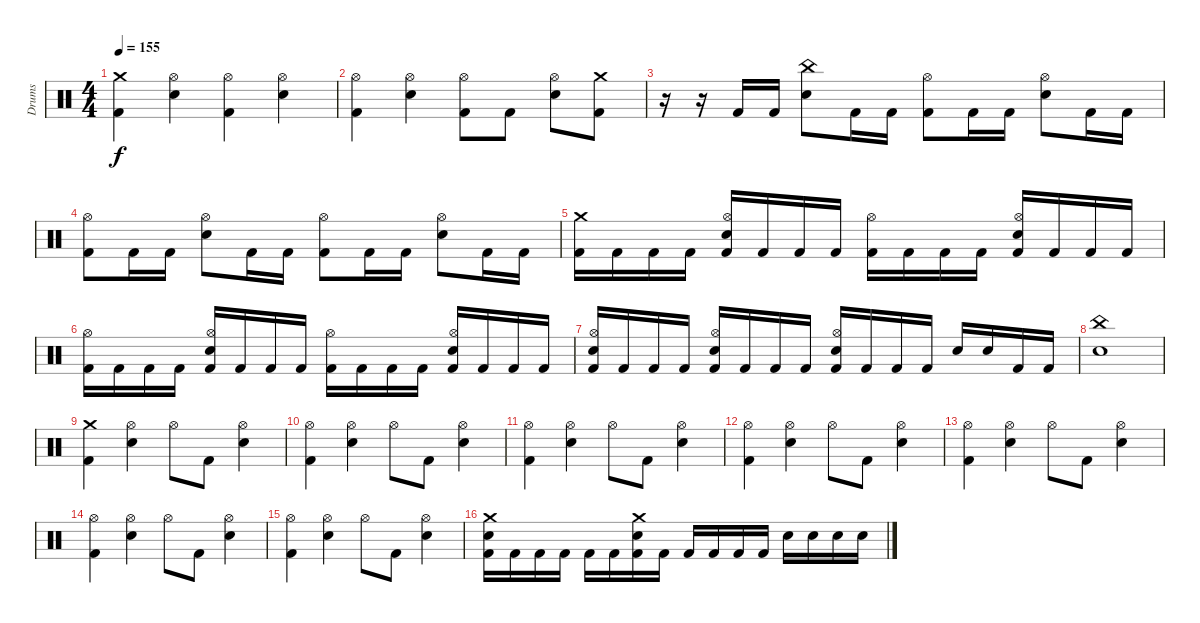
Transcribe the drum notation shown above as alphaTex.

\track ("Drums" "Drums") {instrument percussion}
\staff {score}
\articulation defaults
\ts (4 4)
\tempo 155
\clef neutral
\ks c
("Crash medium (hit)" "Kick (hit) 2").4{dy f} ("Hi-Hat (open)" "Snare (hit) 2").4 ("Hi-Hat (open)" "Kick (hit) 2").4 ("Hi-Hat (open)" "Snare (hit) 2").4 |
("Hi-Hat (open)" "Kick (hit) 2").4 ("Hi-Hat (open)" "Snare (hit) 2").4 ("Hi-Hat (open)" "Kick (hit) 2").8 "Kick (hit) 2".8 ("Hi-Hat (open)" "Snare (hit) 2").8 ("Crash medium (hit)" "Kick (hit) 2").8 |
r.16 r.16 "Kick (hit) 2".16 "Kick (hit) 2".16 ("China (hit)" "Snare (hit) 2").8 "Kick (hit) 2".16 "Kick (hit) 2".16 ("Hi-Hat (open)" "Kick (hit) 2").8 "Kick (hit) 2".16 "Kick (hit) 2".16 ("Hi-Hat (open)" "Snare (hit) 2").8 "Kick (hit) 2".16 "Kick (hit) 2".16 |
("Hi-Hat (open)" "Kick (hit) 2").8 "Kick (hit) 2".16 "Kick (hit) 2".16 ("Hi-Hat (open)" "Snare (hit) 2").8 "Kick (hit) 2".16 "Kick (hit) 2".16 ("Hi-Hat (open)" "Kick (hit) 2").8 "Kick (hit) 2".16 "Kick (hit) 2".16 ("Hi-Hat (open)" "Snare (hit) 2").8 "Kick (hit) 2".16 "Kick (hit) 2".16 |
("Crash medium (hit)" "Kick (hit) 2").16 "Kick (hit) 2".16 "Kick (hit) 2".16 "Kick (hit) 2".16 ("Hi-Hat (open)" "Snare (hit) 2" "Kick (hit) 2").16 "Kick (hit) 2".16 "Kick (hit) 2".16 "Kick (hit) 2".16 ("Hi-Hat (open)" "Kick (hit) 2").16 "Kick (hit) 2".16 "Kick (hit) 2".16 "Kick (hit) 2".16 ("Hi-Hat (open)" "Snare (hit) 2" "Kick (hit) 2").16 "Kick (hit) 2".16 "Kick (hit) 2".16 "Kick (hit) 2".16 |
("Hi-Hat (open)" "Kick (hit) 2").16 "Kick (hit) 2".16 "Kick (hit) 2".16 "Kick (hit) 2".16 ("Hi-Hat (open)" "Snare (hit) 2" "Kick (hit) 2").16 "Kick (hit) 2".16 "Kick (hit) 2".16 "Kick (hit) 2".16 ("Hi-Hat (open)" "Kick (hit) 2").16 "Kick (hit) 2".16 "Kick (hit) 2".16 "Kick (hit) 2".16 ("Hi-Hat (open)" "Snare (hit) 2" "Kick (hit) 2").16 "Kick (hit) 2".16 "Kick (hit) 2".16 "Kick (hit) 2".16 |
("Hi-Hat (open)" "Snare (hit) 2" "Kick (hit) 2").16 "Kick (hit) 2".16 "Kick (hit) 2".16 "Kick (hit) 2".16 ("Hi-Hat (open)" "Snare (hit) 2" "Kick (hit) 2").16 "Kick (hit) 2".16 "Kick (hit) 2".16 "Kick (hit) 2".16 ("Hi-Hat (open)" "Snare (hit) 2" "Kick (hit) 2").16 "Kick (hit) 2".16 "Kick (hit) 2".16 "Kick (hit) 2".16 "Snare (hit) 2".16 "Snare (hit) 2".16 "Kick (hit) 2".16 "Kick (hit) 2".16 |
("China (hit)" "Snare (hit) 2").1 |
("Crash medium (hit)" "Kick (hit) 2").4 ("Hi-Hat (open)" "Snare (hit) 2").4 "Hi-Hat (open)".8 "Kick (hit) 2".8 ("Hi-Hat (open)" "Snare (hit) 2").4 |
("Hi-Hat (open)" "Kick (hit) 2").4 ("Hi-Hat (open)" "Snare (hit) 2").4 "Hi-Hat (open)".8 "Kick (hit) 2".8 ("Hi-Hat (open)" "Snare (hit) 2").4 |
("Hi-Hat (open)" "Kick (hit) 2").4 ("Hi-Hat (open)" "Snare (hit) 2").4 "Hi-Hat (open)".8 "Kick (hit) 2".8 ("Hi-Hat (open)" "Snare (hit) 2").4 |
("Hi-Hat (open)" "Kick (hit) 2").4 ("Hi-Hat (open)" "Snare (hit) 2").4 "Hi-Hat (open)".8 "Kick (hit) 2".8 ("Hi-Hat (open)" "Snare (hit) 2").4 |
("Hi-Hat (open)" "Kick (hit) 2").4 ("Hi-Hat (open)" "Snare (hit) 2").4 "Hi-Hat (open)".8 "Kick (hit) 2".8 ("Hi-Hat (open)" "Snare (hit) 2").4 |
("Hi-Hat (open)" "Kick (hit) 2").4 ("Hi-Hat (open)" "Snare (hit) 2").4 "Hi-Hat (open)".8 "Kick (hit) 2".8 ("Hi-Hat (open)" "Snare (hit) 2").4 |
("Hi-Hat (open)" "Kick (hit) 2").4 ("Hi-Hat (open)" "Snare (hit) 2").4 "Hi-Hat (open)".8 "Kick (hit) 2".8 ("Hi-Hat (open)" "Snare (hit) 2").4 |
("Crash medium (hit)" "Snare (hit) 2" "Kick (hit) 2").16 "Kick (hit) 2".16 "Kick (hit) 2".16 "Kick (hit) 2".16 "Kick (hit) 2".16 "Kick (hit) 2".16 ("Crash medium (hit)" "Snare (hit) 2" "Kick (hit) 2").16 "Kick (hit) 2".16 "Kick (hit) 2".16 "Kick (hit) 2".16 "Kick (hit) 2".16 "Kick (hit) 2".16 "Snare (hit) 2".16 "Snare (hit) 2".16 "Snare (hit) 2".16 "Snare (hit) 2".16
